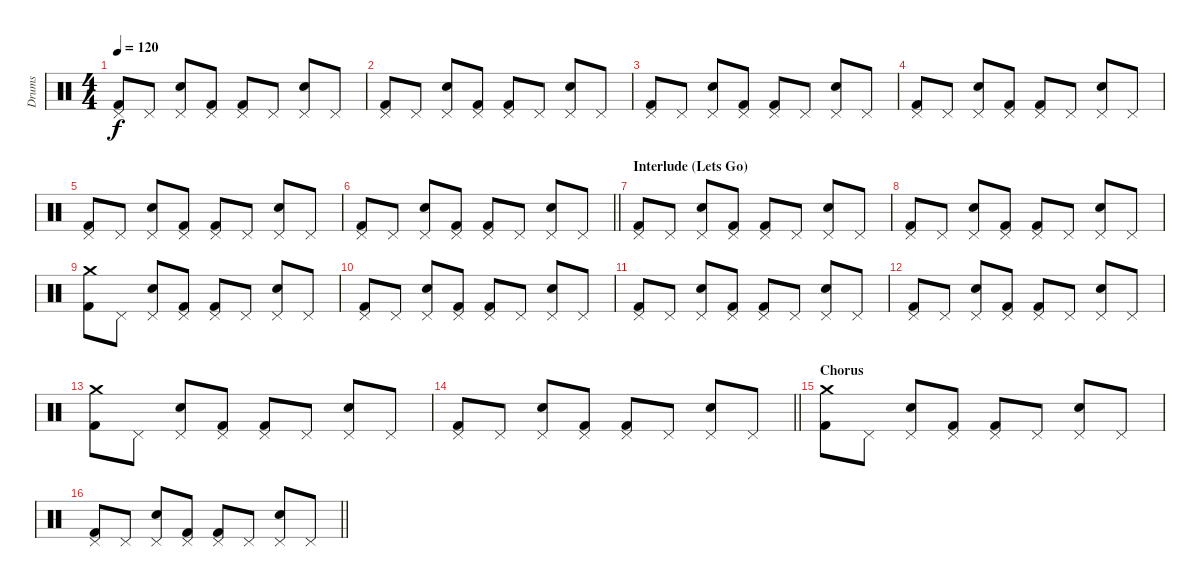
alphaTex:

\track ("Drums" "Drums") {instrument percussion}
\staff {score}
\articulation defaults
\ts (4 4)
\tempo 120
\clef neutral
\ks c
("Pedal Hi-Hat (hit)" "Kick (hit) 2").8{dy f} "Pedal Hi-Hat (hit)".8 ("Pedal Hi-Hat (hit)" "Electric Snare (hit)").8 ("Pedal Hi-Hat (hit)" "Kick (hit) 2").8 ("Pedal Hi-Hat (hit)" "Kick (hit) 2").8 "Pedal Hi-Hat (hit)".8 ("Pedal Hi-Hat (hit)" "Electric Snare (hit)").8 "Pedal Hi-Hat (hit)".8 |
("Pedal Hi-Hat (hit)" "Kick (hit) 2").8 "Pedal Hi-Hat (hit)".8 ("Pedal Hi-Hat (hit)" "Electric Snare (hit)").8 ("Pedal Hi-Hat (hit)" "Kick (hit) 2").8 ("Pedal Hi-Hat (hit)" "Kick (hit) 2").8 "Pedal Hi-Hat (hit)".8 ("Pedal Hi-Hat (hit)" "Electric Snare (hit)").8 "Pedal Hi-Hat (hit)".8 |
("Pedal Hi-Hat (hit)" "Kick (hit) 2").8 "Pedal Hi-Hat (hit)".8 ("Pedal Hi-Hat (hit)" "Electric Snare (hit)").8 ("Pedal Hi-Hat (hit)" "Kick (hit) 2").8 ("Pedal Hi-Hat (hit)" "Kick (hit) 2").8 "Pedal Hi-Hat (hit)".8 ("Pedal Hi-Hat (hit)" "Electric Snare (hit)").8 "Pedal Hi-Hat (hit)".8 |
("Pedal Hi-Hat (hit)" "Kick (hit) 2").8 "Pedal Hi-Hat (hit)".8 ("Pedal Hi-Hat (hit)" "Electric Snare (hit)").8 ("Pedal Hi-Hat (hit)" "Kick (hit) 2").8 ("Pedal Hi-Hat (hit)" "Kick (hit) 2").8 "Pedal Hi-Hat (hit)".8 ("Pedal Hi-Hat (hit)" "Electric Snare (hit)").8 "Pedal Hi-Hat (hit)".8 |
("Pedal Hi-Hat (hit)" "Kick (hit) 2").8 "Pedal Hi-Hat (hit)".8 ("Pedal Hi-Hat (hit)" "Electric Snare (hit)").8 ("Pedal Hi-Hat (hit)" "Kick (hit) 2").8 ("Pedal Hi-Hat (hit)" "Kick (hit) 2").8 "Pedal Hi-Hat (hit)".8 ("Pedal Hi-Hat (hit)" "Electric Snare (hit)").8 "Pedal Hi-Hat (hit)".8 |
\barLineRight lightlight
("Pedal Hi-Hat (hit)" "Kick (hit) 2").8 "Pedal Hi-Hat (hit)".8 ("Pedal Hi-Hat (hit)" "Electric Snare (hit)").8 ("Pedal Hi-Hat (hit)" "Kick (hit) 2").8 ("Pedal Hi-Hat (hit)" "Kick (hit) 2").8 "Pedal Hi-Hat (hit)".8 ("Pedal Hi-Hat (hit)" "Electric Snare (hit)").8 "Pedal Hi-Hat (hit)".8 |
\section ("" "Interlude (Lets Go)")
("Pedal Hi-Hat (hit)" "Kick (hit) 2").8 "Pedal Hi-Hat (hit)".8 ("Pedal Hi-Hat (hit)" "Electric Snare (hit)").8 ("Pedal Hi-Hat (hit)" "Kick (hit) 2").8 ("Pedal Hi-Hat (hit)" "Kick (hit) 2").8 "Pedal Hi-Hat (hit)".8 ("Pedal Hi-Hat (hit)" "Electric Snare (hit)").8 "Pedal Hi-Hat (hit)".8 |
("Pedal Hi-Hat (hit)" "Kick (hit) 2").8 "Pedal Hi-Hat (hit)".8 ("Pedal Hi-Hat (hit)" "Electric Snare (hit)").8 ("Pedal Hi-Hat (hit)" "Kick (hit) 2").8 ("Pedal Hi-Hat (hit)" "Kick (hit) 2").8 "Pedal Hi-Hat (hit)".8 ("Pedal Hi-Hat (hit)" "Electric Snare (hit)").8 "Pedal Hi-Hat (hit)".8 |
("Crash medium (hit)" "Kick (hit) 2").8 "Pedal Hi-Hat (hit)".8 ("Pedal Hi-Hat (hit)" "Electric Snare (hit)").8 ("Pedal Hi-Hat (hit)" "Kick (hit) 2").8 ("Pedal Hi-Hat (hit)" "Kick (hit) 2").8 "Pedal Hi-Hat (hit)".8 ("Pedal Hi-Hat (hit)" "Electric Snare (hit)").8 "Pedal Hi-Hat (hit)".8 |
("Pedal Hi-Hat (hit)" "Kick (hit) 2").8 "Pedal Hi-Hat (hit)".8 ("Pedal Hi-Hat (hit)" "Electric Snare (hit)").8 ("Pedal Hi-Hat (hit)" "Kick (hit) 2").8 ("Pedal Hi-Hat (hit)" "Kick (hit) 2").8 "Pedal Hi-Hat (hit)".8 ("Pedal Hi-Hat (hit)" "Electric Snare (hit)").8 "Pedal Hi-Hat (hit)".8 |
("Pedal Hi-Hat (hit)" "Kick (hit) 2").8 "Pedal Hi-Hat (hit)".8 ("Pedal Hi-Hat (hit)" "Electric Snare (hit)").8 ("Pedal Hi-Hat (hit)" "Kick (hit) 2").8 ("Pedal Hi-Hat (hit)" "Kick (hit) 2").8 "Pedal Hi-Hat (hit)".8 ("Pedal Hi-Hat (hit)" "Electric Snare (hit)").8 "Pedal Hi-Hat (hit)".8 |
("Pedal Hi-Hat (hit)" "Kick (hit) 2").8 "Pedal Hi-Hat (hit)".8 ("Pedal Hi-Hat (hit)" "Electric Snare (hit)").8 ("Pedal Hi-Hat (hit)" "Kick (hit) 2").8 ("Pedal Hi-Hat (hit)" "Kick (hit) 2").8 "Pedal Hi-Hat (hit)".8 ("Pedal Hi-Hat (hit)" "Electric Snare (hit)").8 "Pedal Hi-Hat (hit)".8 |
("Crash medium (hit)" "Kick (hit) 2").8 "Pedal Hi-Hat (hit)".8 ("Pedal Hi-Hat (hit)" "Electric Snare (hit)").8 ("Pedal Hi-Hat (hit)" "Kick (hit) 2").8 ("Pedal Hi-Hat (hit)" "Kick (hit) 2").8 "Pedal Hi-Hat (hit)".8 ("Pedal Hi-Hat (hit)" "Electric Snare (hit)").8 "Pedal Hi-Hat (hit)".8 |
\barLineRight lightlight
("Pedal Hi-Hat (hit)" "Kick (hit) 2").8 "Pedal Hi-Hat (hit)".8 ("Pedal Hi-Hat (hit)" "Electric Snare (hit)").8 ("Pedal Hi-Hat (hit)" "Kick (hit) 2").8 ("Pedal Hi-Hat (hit)" "Kick (hit) 2").8 "Pedal Hi-Hat (hit)".8 ("Pedal Hi-Hat (hit)" "Electric Snare (hit)").8 "Pedal Hi-Hat (hit)".8 |
\section ("" "Chorus")
("Crash medium (hit)" "Kick (hit) 2").8 "Pedal Hi-Hat (hit)".8 ("Pedal Hi-Hat (hit)" "Electric Snare (hit)").8 ("Pedal Hi-Hat (hit)" "Kick (hit) 2").8 ("Pedal Hi-Hat (hit)" "Kick (hit) 2").8 "Pedal Hi-Hat (hit)".8 ("Pedal Hi-Hat (hit)" "Electric Snare (hit)").8 "Pedal Hi-Hat (hit)".8 |
\barLineRight lightlight
("Pedal Hi-Hat (hit)" "Kick (hit) 2").8 "Pedal Hi-Hat (hit)".8 ("Pedal Hi-Hat (hit)" "Electric Snare (hit)").8 ("Pedal Hi-Hat (hit)" "Kick (hit) 2").8 ("Pedal Hi-Hat (hit)" "Kick (hit) 2").8 "Pedal Hi-Hat (hit)".8 ("Pedal Hi-Hat (hit)" "Electric Snare (hit)").8 "Pedal Hi-Hat (hit)".8
